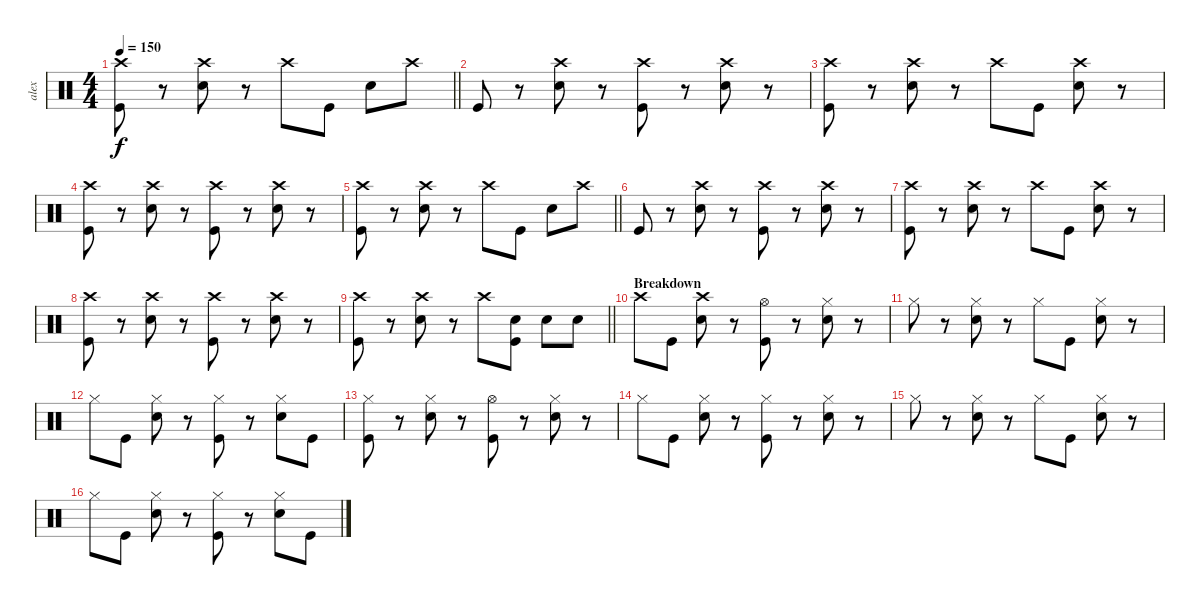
\track ("alex" "alex") {instrument percussion}
\staff {score}
\articulation defaults
\ts (4 4)
\tempo 150
\clef neutral
\barLineRight lightlight
\ks c
("Crash high (hit)" "Kick (hit)").8{dy f} r.8 ("Crash high (hit)" "Snare (hit) 2").8 r.8 "Crash high (hit)".8 "Kick (hit)".8 "Snare (hit) 2".8 "Crash high (hit)".8 |
"Kick (hit)".8 r.8 ("Crash high (hit)" "Snare (hit) 2").8 r.8 ("Crash high (hit)" "Kick (hit)").8 r.8 ("Crash high (hit)" "Snare (hit) 2").8 r.8 |
("Crash high (hit)" "Kick (hit)").8 r.8 ("Crash high (hit)" "Snare (hit) 2").8 r.8 "Crash high (hit)".8 "Kick (hit)".8 ("Crash high (hit)" "Snare (hit) 2").8 r.8 |
("Crash high (hit)" "Kick (hit)").8 r.8 ("Crash high (hit)" "Snare (hit) 2").8 r.8 ("Crash high (hit)" "Kick (hit)").8 r.8 ("Crash high (hit)" "Snare (hit) 2").8 r.8 |
\barLineRight lightlight
("Crash high (hit)" "Kick (hit)").8 r.8 ("Crash high (hit)" "Snare (hit) 2").8 r.8 "Crash high (hit)".8 "Kick (hit)".8 "Snare (hit) 2".8 "Crash high (hit)".8 |
"Kick (hit)".8 r.8 ("Crash high (hit)" "Snare (hit) 2").8 r.8 ("Crash high (hit)" "Kick (hit)").8 r.8 ("Crash high (hit)" "Snare (hit) 2").8 r.8 |
("Crash high (hit)" "Kick (hit)").8 r.8 ("Crash high (hit)" "Snare (hit) 2").8 r.8 "Crash high (hit)".8 "Kick (hit)".8 ("Crash high (hit)" "Snare (hit) 2").8 r.8 |
("Crash high (hit)" "Kick (hit)").8 r.8 ("Crash high (hit)" "Snare (hit) 2").8 r.8 ("Crash high (hit)" "Kick (hit)").8 r.8 ("Crash high (hit)" "Snare (hit) 2").8 r.8 |
\barLineRight lightlight
("Crash high (hit)" "Kick (hit)").8 r.8 ("Crash high (hit)" "Snare (hit) 2").8 r.8 "Crash high (hit)".8 ("Snare (hit) 2" "Kick (hit)").8 "Snare (hit) 2".8 "Snare (hit) 2".8 |
\section ("" "Breakdown")
"Crash high (hit)".8 "Kick (hit)".8 ("Crash high (hit)" "Snare (hit) 2").8 r.8 ("Hi-Hat (open)" "Kick (hit)").8 r.8 ("Hi-Hat (closed)" "Snare (hit) 2").8 r.8 |
"Hi-Hat (closed)".8 r.8 ("Hi-Hat (closed)" "Snare (hit) 2").8 r.8 "Hi-Hat (closed)".8 "Kick (hit)".8 ("Hi-Hat (closed)" "Snare (hit) 2").8 r.8 |
"Hi-Hat (closed)".8 "Kick (hit)".8 ("Hi-Hat (closed)" "Snare (hit) 2").8 r.8 ("Hi-Hat (closed)" "Kick (hit)").8 r.8 ("Hi-Hat (closed)" "Snare (hit) 2").8 "Kick (hit)".8 |
("Hi-Hat (closed)" "Kick (hit)").8 r.8 ("Hi-Hat (closed)" "Snare (hit) 2").8 r.8 ("Hi-Hat (open)" "Kick (hit)").8 r.8 ("Hi-Hat (closed)" "Snare (hit) 2").8 r.8 |
"Hi-Hat (closed)".8 "Kick (hit)".8 ("Hi-Hat (closed)" "Snare (hit) 2").8 r.8 ("Hi-Hat (closed)" "Kick (hit)").8 r.8 ("Hi-Hat (closed)" "Snare (hit) 2").8 r.8 |
"Hi-Hat (closed)".8 r.8 ("Hi-Hat (closed)" "Snare (hit) 2").8 r.8 "Hi-Hat (closed)".8 "Kick (hit)".8 ("Hi-Hat (closed)" "Snare (hit) 2").8 r.8 |
"Hi-Hat (closed)".8 "Kick (hit)".8 ("Hi-Hat (closed)" "Snare (hit) 2").8 r.8 ("Hi-Hat (closed)" "Kick (hit)").8 r.8 ("Hi-Hat (closed)" "Snare (hit) 2").8 "Kick (hit)".8
